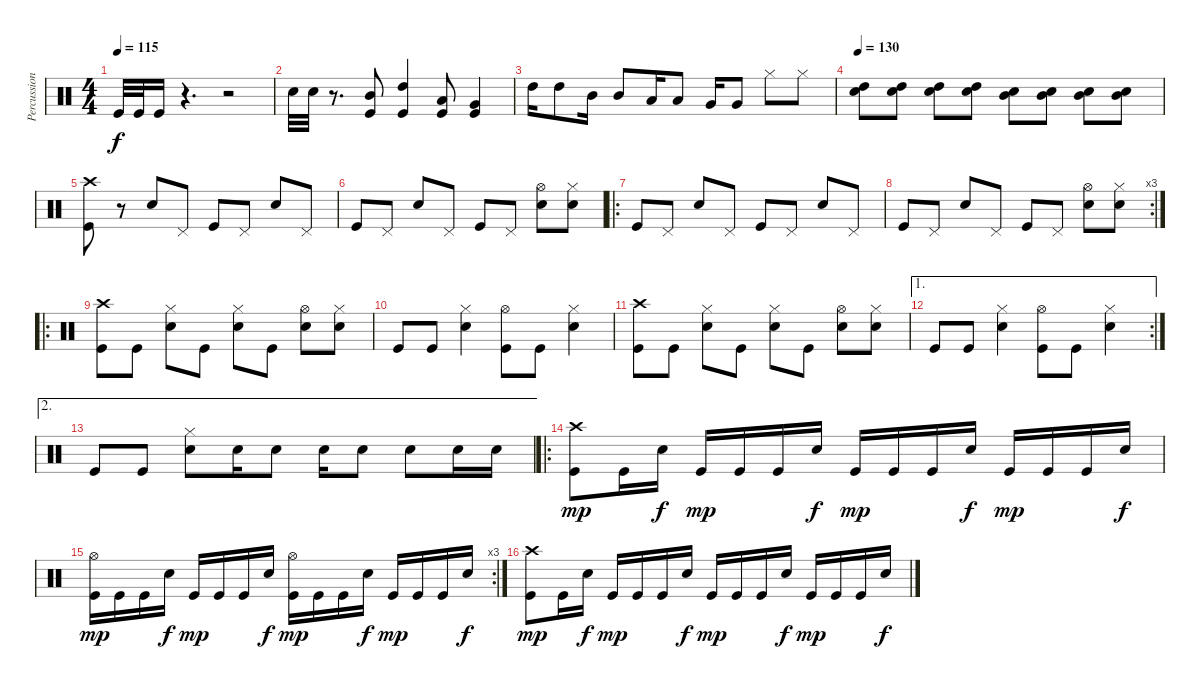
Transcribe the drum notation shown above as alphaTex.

\track ("Percussions" "Percussion") {instrument percussion}
\staff {score}
\articulation defaults
\ts (4 4)
\tempo 115
\clef neutral
\ks c "Kick (hit)".32{dy f} "Kick (hit)".32 "Kick (hit)".16
r.4{d} r.2 |
"Snare (hit) 2".32 "Snare (hit) 2".32 r.8{d} ("Mid Tom (hit)" "Kick (hit)").8 ("High Tom (hit)" "Kick (hit)").4 ("Low Tom (hit)" "Kick (hit)").8 ("Very Low Tom (hit)" "Kick (hit)").4 |
"High Tom (hit)".16 "High Tom (hit)".8 "Mid Tom (hit)".16 "Mid Tom (hit)".8 "Low Tom (hit)".16 "Low Tom (hit)".8 "Very Low Tom (hit)".16 "Very Low Tom (hit)".8 "Hi-Hat (closed)".8 "Hi-Hat (closed)".8 |
\tempo 130
("High Tom (hit)" "Snare (hit) 2").8 ("High Tom (hit)" "Snare (hit) 2").8 ("High Tom (hit)" "Snare (hit) 2").8 ("High Tom (hit)" "Snare (hit) 2").8 ("Mid Tom (hit)" "Snare (hit) 2").8 ("Mid Tom (hit)" "Snare (hit) 2").8 ("Mid Tom (hit)" "Snare (hit) 2").8 ("Mid Tom (hit)" "Snare (hit) 2").8 |
("Crash high (hit)" "Kick (hit)").8 r.8 "Snare (hit) 2".8 "Pedal Hi-Hat (hit)".8 "Kick (hit)".8 "Pedal Hi-Hat (hit)".8 "Snare (hit) 2".8 "Pedal Hi-Hat (hit)".8 |
"Kick (hit)".8 "Pedal Hi-Hat (hit)".8 "Snare (hit) 2".8 "Pedal Hi-Hat (hit)".8 "Kick (hit)".8 "Pedal Hi-Hat (hit)".8 ("Hi-Hat (open)" "Snare (hit) 2").8 ("Hi-Hat (closed)" "Snare (hit) 2").8 |
\ro "Kick (hit)".8 "Pedal Hi-Hat (hit)".8 "Snare (hit) 2".8 "Pedal Hi-Hat (hit)".8 "Kick (hit)".8 "Pedal Hi-Hat (hit)".8 "Snare (hit) 2".8 "Pedal Hi-Hat (hit)".8
|
\rc 3 "Kick (hit)".8 "Pedal Hi-Hat (hit)".8 "Snare (hit) 2".8 "Pedal Hi-Hat (hit)".8 "Kick (hit)".8 "Pedal Hi-Hat (hit)".8
("Hi-Hat (open)" "Snare (hit) 2").8 ("Hi-Hat (closed)" "Snare (hit) 2").8 |
\ro
("Crash high (hit)" "Kick (hit)").8 "Kick (hit)".8 ("Hi-Hat (closed)" "Snare (hit) 2").8 "Kick (hit)".8 ("Hi-Hat (closed)" "Snare (hit) 2").8 "Kick (hit)".8 ("Hi-Hat (open)" "Snare (hit) 2").8 ("Hi-Hat (closed)" "Snare (hit) 2").8 |
"Kick (hit)".8 "Kick (hit)".8 ("Hi-Hat (closed)" "Snare (hit) 2").4 ("Hi-Hat (open)" "Kick (hit)").8 "Kick (hit)".8 ("Hi-Hat (closed)" "Snare (hit) 2").4 |
("Crash high (hit)" "Kick (hit)").8 "Kick (hit)".8 ("Hi-Hat (closed)" "Snare (hit) 2").8 "Kick (hit)".8 ("Hi-Hat (closed)" "Snare (hit) 2").8 "Kick (hit)".8 ("Hi-Hat (open)" "Snare (hit) 2").8 ("Hi-Hat (closed)" "Snare (hit) 2").8 |
\ae 1
\rc 2 "Kick (hit)".8 "Kick (hit)".8
("Hi-Hat (closed)" "Snare (hit) 2").4 ("Hi-Hat (open)" "Kick (hit)").8 "Kick (hit)".8 ("Hi-Hat (closed)" "Snare (hit) 2").4 |
\ae 2 "Kick (hit)".8 "Kick (hit)".8
("Hi-Hat (closed)" "Snare (hit) 2").8 "Snare (hit) 2".16 "Snare (hit) 2".8 "Snare (hit) 2".16 "Snare (hit) 2".8 "Snare (hit) 2".8 "Snare (hit) 2".16 "Snare (hit) 2".16 |
\ro
("Crash high (hit)" "Kick (hit)").8{dy mp} "Kick (hit)".16 "Snare (hit) 2".16{dy f} "Kick (hit)".16{dy mp} "Kick (hit)".16 "Kick (hit)".16 "Snare (hit) 2".16{dy f} "Kick (hit)".16{dy mp} "Kick (hit)".16 "Kick (hit)".16 "Snare (hit) 2".16{dy f} "Kick (hit)".16{dy mp} "Kick (hit)".16 "Kick (hit)".16 "Snare (hit) 2".16{dy f} |
\rc 3
("Hi-Hat (open)" "Kick (hit)").16{dy mp} "Kick (hit)".16 "Kick (hit)".16 "Snare (hit) 2".16{dy f} "Kick (hit)".16{dy mp} "Kick (hit)".16 "Kick (hit)".16 "Snare (hit) 2".16{dy f} ("Hi-Hat (open)" "Kick (hit)").16{dy mp} "Kick (hit)".16 "Kick (hit)".16 "Snare (hit) 2".16{dy f} "Kick (hit)".16{dy mp} "Kick (hit)".16 "Kick (hit)".16 "Snare (hit) 2".16{dy f} |
("Crash high (hit)" "Kick (hit)").8{dy mp} "Kick (hit)".16 "Snare (hit) 2".16{dy f} "Kick (hit)".16{dy mp} "Kick (hit)".16 "Kick (hit)".16 "Snare (hit) 2".16{dy f} "Kick (hit)".16{dy mp} "Kick (hit)".16 "Kick (hit)".16 "Snare (hit) 2".16{dy f} "Kick (hit)".16{dy mp} "Kick (hit)".16 "Kick (hit)".16 "Snare (hit) 2".16{dy f}
